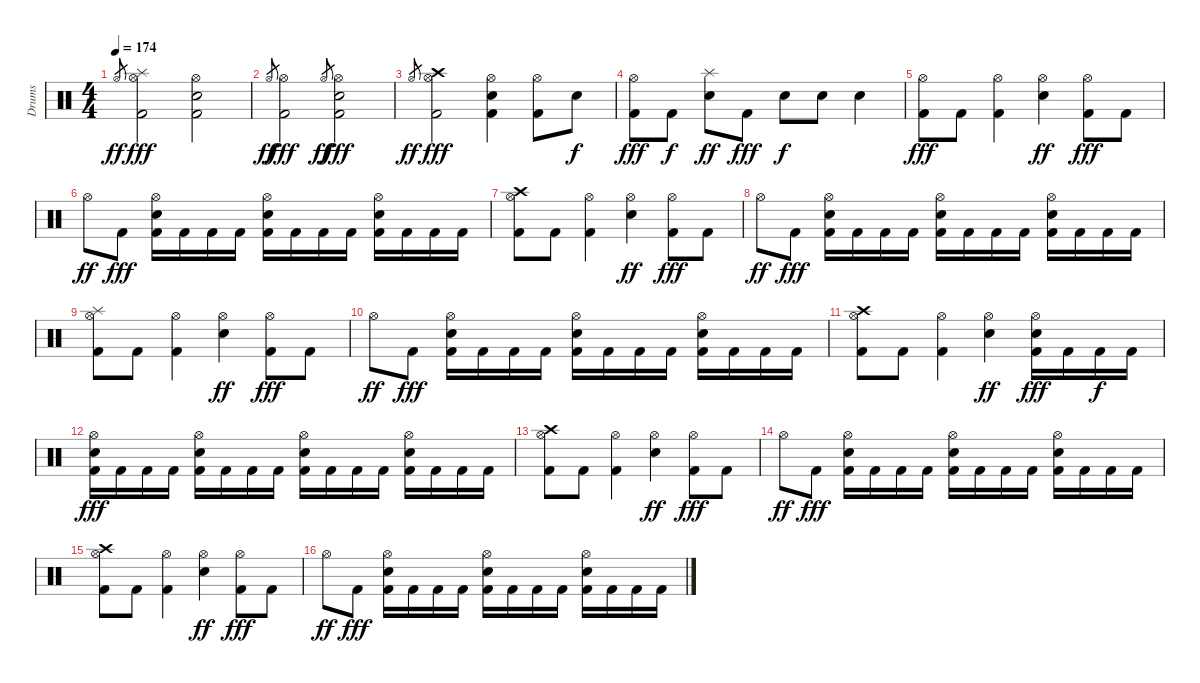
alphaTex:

\track ("Drums" "Drums") {instrument percussion}
\staff {score}
\articulation defaults
\ts (4 4)
\tempo 174
\clef neutral
\ks c "Hi-Hat (open)".8{gr dy ff}
("Splash (hit)" "Hi-Hat (open)" "Kick (hit) 2").2{dy fff} ("Hi-Hat (open)" "Snare (hit) 2" "Kick (hit) 2").2 |
"Hi-Hat (open)".8{gr dy ff} ("Hi-Hat (open)" "Kick (hit) 2").2{dy fff} "Hi-Hat (open)".8{gr dy ff} ("Hi-Hat (open)" "Snare (hit) 2" "Kick (hit) 2").2{dy fff} |
"Hi-Hat (open)".8{gr dy ff} ("Crash high (hit)" "Hi-Hat (open)" "Kick (hit) 2").2{dy fff} ("Hi-Hat (open)" "Snare (hit) 2" "Kick (hit) 2").4 ("Hi-Hat (open)" "Kick (hit) 2").8 "Snare (hit) 2".8{dy f} |
("Hi-Hat (open)" "Kick (hit) 2").8{dy fff} "Kick (hit) 2".8{dy f} ("Splash (hit)" "Snare (hit) 2").8{dy ff} "Kick (hit) 2".8{dy fff} "Snare (hit) 2".8{dy f} "Snare (hit) 2".8 "Snare (hit) 2".4 |
("Hi-Hat (open)" "Kick (hit) 2").8{dy fff} "Kick (hit) 2".8 ("Hi-Hat (open)" "Kick (hit) 2").4 ("Hi-Hat (open)" "Snare (hit) 2").4{dy ff} ("Hi-Hat (open)" "Kick (hit) 2").8{dy fff} "Kick (hit) 2".8 |
"Hi-Hat (open)".8{dy ff} "Kick (hit) 2".8{dy fff} ("Hi-Hat (open)" "Snare (hit) 2" "Kick (hit) 2").16 "Kick (hit) 2".16 "Kick (hit) 2".16 "Kick (hit) 2".16 ("Hi-Hat (open)" "Snare (hit) 2" "Kick (hit) 2").16 "Kick (hit) 2".16 "Kick (hit) 2".16 "Kick (hit) 2".16 ("Hi-Hat (open)" "Snare (hit) 2" "Kick (hit) 2").16 "Kick (hit) 2".16 "Kick (hit) 2".16 "Kick (hit) 2".16 |
("Crash high (hit)" "Hi-Hat (open)" "Kick (hit) 2").8 "Kick (hit) 2".8 ("Hi-Hat (open)" "Kick (hit) 2").4 ("Hi-Hat (open)" "Snare (hit) 2").4{dy ff} ("Hi-Hat (open)" "Kick (hit) 2").8{dy fff} "Kick (hit) 2".8 |
"Hi-Hat (open)".8{dy ff} "Kick (hit) 2".8{dy fff} ("Hi-Hat (open)" "Snare (hit) 2" "Kick (hit) 2").16 "Kick (hit) 2".16 "Kick (hit) 2".16 "Kick (hit) 2".16 ("Hi-Hat (open)" "Snare (hit) 2" "Kick (hit) 2").16 "Kick (hit) 2".16 "Kick (hit) 2".16 "Kick (hit) 2".16 ("Hi-Hat (open)" "Snare (hit) 2" "Kick (hit) 2").16 "Kick (hit) 2".16 "Kick (hit) 2".16 "Kick (hit) 2".16 |
("Splash (hit)" "Hi-Hat (open)" "Kick (hit) 2").8 "Kick (hit) 2".8 ("Hi-Hat (open)" "Kick (hit) 2").4 ("Hi-Hat (open)" "Snare (hit) 2").4{dy ff} ("Hi-Hat (open)" "Kick (hit) 2").8{dy fff} "Kick (hit) 2".8 |
"Hi-Hat (open)".8{dy ff} "Kick (hit) 2".8{dy fff} ("Hi-Hat (open)" "Snare (hit) 2" "Kick (hit) 2").16 "Kick (hit) 2".16 "Kick (hit) 2".16 "Kick (hit) 2".16 ("Hi-Hat (open)" "Snare (hit) 2" "Kick (hit) 2").16 "Kick (hit) 2".16 "Kick (hit) 2".16 "Kick (hit) 2".16 ("Hi-Hat (open)" "Snare (hit) 2" "Kick (hit) 2").16 "Kick (hit) 2".16 "Kick (hit) 2".16 "Kick (hit) 2".16 |
("Crash high (hit)" "Hi-Hat (open)" "Kick (hit) 2").8 "Kick (hit) 2".8 ("Hi-Hat (open)" "Kick (hit) 2").4 ("Hi-Hat (open)" "Snare (hit) 2").4{dy ff} ("Hi-Hat (open)" "Snare (hit) 2" "Kick (hit) 2").16{dy fff} "Kick (hit) 2".16 "Kick (hit) 2".16{dy f} "Kick (hit) 2".16 |
("Hi-Hat (open)" "Snare (hit) 2" "Kick (hit) 2").16{dy fff} "Kick (hit) 2".16 "Kick (hit) 2".16 "Kick (hit) 2".16 ("Hi-Hat (open)" "Snare (hit) 2" "Kick (hit) 2").16 "Kick (hit) 2".16 "Kick (hit) 2".16 "Kick (hit) 2".16 ("Hi-Hat (open)" "Snare (hit) 2" "Kick (hit) 2").16 "Kick (hit) 2".16 "Kick (hit) 2".16 "Kick (hit) 2".16 ("Hi-Hat (open)" "Snare (hit) 2" "Kick (hit) 2").16 "Kick (hit) 2".16 "Kick (hit) 2".16 "Kick (hit) 2".16 |
("Crash high (hit)" "Hi-Hat (open)" "Kick (hit) 2").8 "Kick (hit) 2".8 ("Hi-Hat (open)" "Kick (hit) 2").4 ("Hi-Hat (open)" "Snare (hit) 2").4{dy ff} ("Hi-Hat (open)" "Kick (hit) 2").8{dy fff} "Kick (hit) 2".8 |
"Hi-Hat (open)".8{dy ff} "Kick (hit) 2".8{dy fff} ("Hi-Hat (open)" "Snare (hit) 2" "Kick (hit) 2").16 "Kick (hit) 2".16 "Kick (hit) 2".16 "Kick (hit) 2".16 ("Hi-Hat (open)" "Snare (hit) 2" "Kick (hit) 2").16 "Kick (hit) 2".16 "Kick (hit) 2".16 "Kick (hit) 2".16 ("Hi-Hat (open)" "Snare (hit) 2" "Kick (hit) 2").16 "Kick (hit) 2".16 "Kick (hit) 2".16 "Kick (hit) 2".16 |
("Crash high (hit)" "Hi-Hat (open)" "Kick (hit) 2").8 "Kick (hit) 2".8 ("Hi-Hat (open)" "Kick (hit) 2").4 ("Hi-Hat (open)" "Snare (hit) 2").4{dy ff} ("Hi-Hat (open)" "Kick (hit) 2").8{dy fff} "Kick (hit) 2".8 |
"Hi-Hat (open)".8{dy ff} "Kick (hit) 2".8{dy fff} ("Hi-Hat (open)" "Snare (hit) 2" "Kick (hit) 2").16 "Kick (hit) 2".16 "Kick (hit) 2".16 "Kick (hit) 2".16 ("Hi-Hat (open)" "Snare (hit) 2" "Kick (hit) 2").16 "Kick (hit) 2".16 "Kick (hit) 2".16 "Kick (hit) 2".16 ("Hi-Hat (open)" "Snare (hit) 2" "Kick (hit) 2").16 "Kick (hit) 2".16 "Kick (hit) 2".16 "Kick (hit) 2".16
